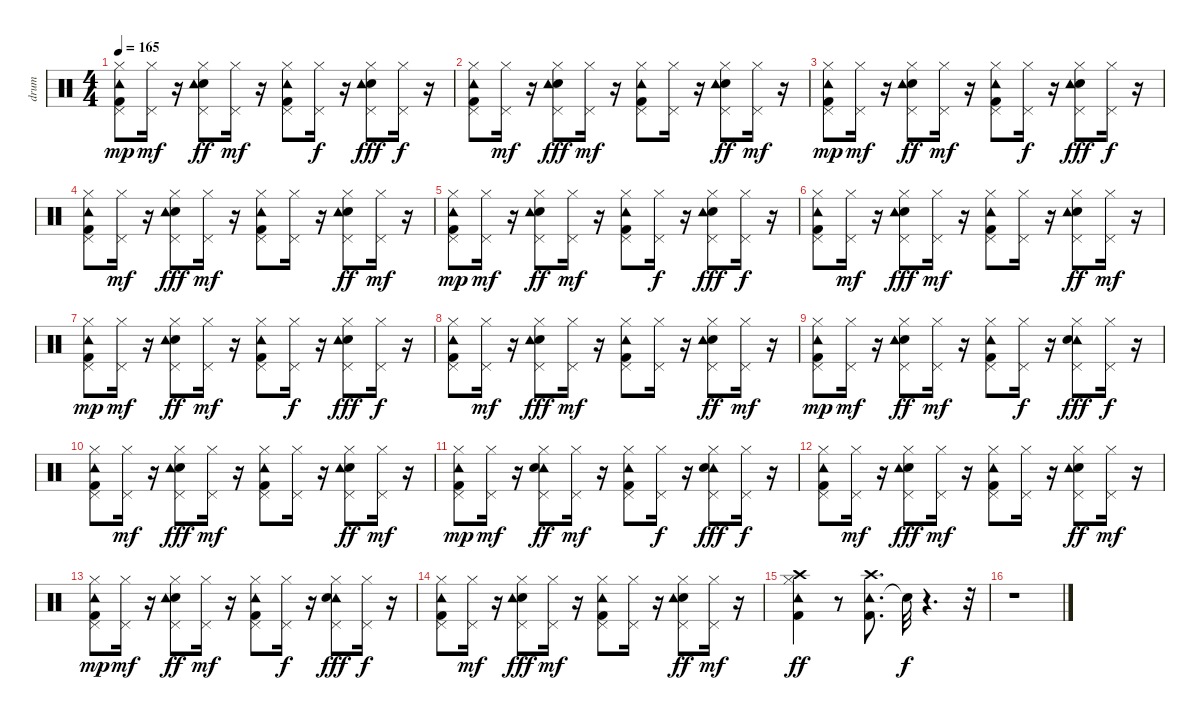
\track ("drum" "drum") {instrument percussion}
\staff {score}
\articulation defaults
\ts (4 4)
\tempo 165
\clef neutral
\ks c
("Hi-Hat (closed)" "Tambourine (hit)" "Pedal Hi-Hat (hit)" "Kick (hit) 2").8{dy mp} ("Hi-Hat (closed)" "Pedal Hi-Hat (hit)").16{dy mf} r.16 ("Hi-Hat (closed)" "Pedal Hi-Hat (hit)" "Electric Snare (hit)" "Tambourine (hit)").8{dy ff} ("Hi-Hat (closed)" "Pedal Hi-Hat (hit)").16{dy mf} r.16 ("Hi-Hat (closed)" "Pedal Hi-Hat (hit)" "Kick (hit) 2" "Tambourine (hit)").8 ("Hi-Hat (closed)" "Pedal Hi-Hat (hit)").16{dy f} r.16 ("Hi-Hat (closed)" "Pedal Hi-Hat (hit)" "Electric Snare (hit)" "Tambourine (hit)").8{dy fff} ("Hi-Hat (closed)" "Pedal Hi-Hat (hit)").16{dy f} r.16 |
("Hi-Hat (closed)" "Pedal Hi-Hat (hit)" "Kick (hit) 2" "Tambourine (hit)").8 ("Hi-Hat (closed)" "Pedal Hi-Hat (hit)").16{dy mf} r.16 ("Hi-Hat (closed)" "Pedal Hi-Hat (hit)" "Electric Snare (hit)" "Tambourine (hit)").8{dy fff} ("Hi-Hat (closed)" "Pedal Hi-Hat (hit)").16{dy mf} r.16 ("Hi-Hat (closed)" "Pedal Hi-Hat (hit)" "Kick (hit) 2" "Tambourine (hit)").8 ("Hi-Hat (closed)" "Pedal Hi-Hat (hit)").16 r.16 ("Hi-Hat (closed)" "Pedal Hi-Hat (hit)" "Electric Snare (hit)" "Tambourine (hit)").8{dy ff} ("Hi-Hat (closed)" "Pedal Hi-Hat (hit)").16{dy mf} r.16 |
("Hi-Hat (closed)" "Pedal Hi-Hat (hit)" "Kick (hit) 2" "Tambourine (hit)").8{dy mp} ("Hi-Hat (closed)" "Pedal Hi-Hat (hit)").16{dy mf} r.16 ("Hi-Hat (closed)" "Pedal Hi-Hat (hit)" "Electric Snare (hit)" "Tambourine (hit)").8{dy ff} ("Hi-Hat (closed)" "Pedal Hi-Hat (hit)").16{dy mf} r.16 ("Hi-Hat (closed)" "Pedal Hi-Hat (hit)" "Kick (hit) 2" "Tambourine (hit)").8 ("Hi-Hat (closed)" "Pedal Hi-Hat (hit)").16{dy f} r.16 ("Hi-Hat (closed)" "Pedal Hi-Hat (hit)" "Electric Snare (hit)" "Tambourine (hit)").8{dy fff} ("Hi-Hat (closed)" "Pedal Hi-Hat (hit)").16{dy f} r.16 |
("Hi-Hat (closed)" "Pedal Hi-Hat (hit)" "Kick (hit) 2" "Tambourine (hit)").8 ("Hi-Hat (closed)" "Pedal Hi-Hat (hit)").16{dy mf} r.16 ("Hi-Hat (closed)" "Pedal Hi-Hat (hit)" "Electric Snare (hit)" "Tambourine (hit)").8{dy fff} ("Hi-Hat (closed)" "Pedal Hi-Hat (hit)").16{dy mf} r.16 ("Hi-Hat (closed)" "Pedal Hi-Hat (hit)" "Kick (hit) 2" "Tambourine (hit)").8 ("Hi-Hat (closed)" "Pedal Hi-Hat (hit)").16 r.16 ("Hi-Hat (closed)" "Pedal Hi-Hat (hit)" "Electric Snare (hit)" "Tambourine (hit)").8{dy ff} ("Hi-Hat (closed)" "Pedal Hi-Hat (hit)").16{dy mf} r.16 |
("Hi-Hat (closed)" "Pedal Hi-Hat (hit)" "Kick (hit) 2" "Tambourine (hit)").8{dy mp} ("Hi-Hat (closed)" "Pedal Hi-Hat (hit)").16{dy mf} r.16 ("Hi-Hat (closed)" "Pedal Hi-Hat (hit)" "Electric Snare (hit)" "Tambourine (hit)").8{dy ff} ("Hi-Hat (closed)" "Pedal Hi-Hat (hit)").16{dy mf} r.16 ("Hi-Hat (closed)" "Pedal Hi-Hat (hit)" "Kick (hit) 2" "Tambourine (hit)").8 ("Hi-Hat (closed)" "Pedal Hi-Hat (hit)").16{dy f} r.16 ("Hi-Hat (closed)" "Pedal Hi-Hat (hit)" "Electric Snare (hit)" "Tambourine (hit)").8{dy fff} ("Hi-Hat (closed)" "Pedal Hi-Hat (hit)").16{dy f} r.16 |
("Hi-Hat (closed)" "Pedal Hi-Hat (hit)" "Kick (hit) 2" "Tambourine (hit)").8 ("Hi-Hat (closed)" "Pedal Hi-Hat (hit)").16{dy mf} r.16 ("Hi-Hat (closed)" "Pedal Hi-Hat (hit)" "Electric Snare (hit)" "Tambourine (hit)").8{dy fff} ("Hi-Hat (closed)" "Pedal Hi-Hat (hit)").16{dy mf} r.16 ("Hi-Hat (closed)" "Pedal Hi-Hat (hit)" "Kick (hit) 2" "Tambourine (hit)").8 ("Hi-Hat (closed)" "Pedal Hi-Hat (hit)").16 r.16 ("Hi-Hat (closed)" "Pedal Hi-Hat (hit)" "Electric Snare (hit)" "Tambourine (hit)").8{dy ff} ("Hi-Hat (closed)" "Pedal Hi-Hat (hit)").16{dy mf} r.16 |
("Hi-Hat (closed)" "Pedal Hi-Hat (hit)" "Kick (hit) 2" "Tambourine (hit)").8{dy mp} ("Hi-Hat (closed)" "Pedal Hi-Hat (hit)").16{dy mf} r.16 ("Hi-Hat (closed)" "Pedal Hi-Hat (hit)" "Electric Snare (hit)" "Tambourine (hit)").8{dy ff} ("Hi-Hat (closed)" "Pedal Hi-Hat (hit)").16{dy mf} r.16 ("Hi-Hat (closed)" "Pedal Hi-Hat (hit)" "Kick (hit) 2" "Tambourine (hit)").8 ("Hi-Hat (closed)" "Pedal Hi-Hat (hit)").16{dy f} r.16 ("Hi-Hat (closed)" "Pedal Hi-Hat (hit)" "Electric Snare (hit)" "Tambourine (hit)").8{dy fff} ("Hi-Hat (closed)" "Pedal Hi-Hat (hit)").16{dy f} r.16 |
("Hi-Hat (closed)" "Pedal Hi-Hat (hit)" "Kick (hit) 2" "Tambourine (hit)").8 ("Hi-Hat (closed)" "Pedal Hi-Hat (hit)").16{dy mf} r.16 ("Hi-Hat (closed)" "Pedal Hi-Hat (hit)" "Electric Snare (hit)" "Tambourine (hit)").8{dy fff} ("Hi-Hat (closed)" "Pedal Hi-Hat (hit)").16{dy mf} r.16 ("Hi-Hat (closed)" "Pedal Hi-Hat (hit)" "Kick (hit) 2" "Tambourine (hit)").8 ("Hi-Hat (closed)" "Pedal Hi-Hat (hit)").16 r.16 ("Hi-Hat (closed)" "Pedal Hi-Hat (hit)" "Electric Snare (hit)" "Tambourine (hit)").8{dy ff} ("Hi-Hat (closed)" "Pedal Hi-Hat (hit)").16{dy mf} r.16 |
("Hi-Hat (closed)" "Pedal Hi-Hat (hit)" "Kick (hit) 2" "Tambourine (hit)").8{dy mp} ("Hi-Hat (closed)" "Pedal Hi-Hat (hit)").16{dy mf} r.16 ("Hi-Hat (closed)" "Pedal Hi-Hat (hit)" "Electric Snare (hit)" "Tambourine (hit)").8{dy ff} ("Hi-Hat (closed)" "Pedal Hi-Hat (hit)").16{dy mf} r.16 ("Hi-Hat (closed)" "Tambourine (hit)" "Pedal Hi-Hat (hit)" "Kick (hit) 2").8 ("Hi-Hat (closed)" "Pedal Hi-Hat (hit)").16{dy f} r.16 ("Hi-Hat (closed)" "Tambourine (hit)" "Pedal Hi-Hat (hit)" "Electric Snare (hit)").8{dy fff} ("Hi-Hat (closed)" "Pedal Hi-Hat (hit)").16{dy f} r.16 |
("Hi-Hat (closed)" "Pedal Hi-Hat (hit)" "Kick (hit) 2" "Tambourine (hit)").8 ("Hi-Hat (closed)" "Pedal Hi-Hat (hit)").16{dy mf} r.16 ("Hi-Hat (closed)" "Pedal Hi-Hat (hit)" "Electric Snare (hit)" "Tambourine (hit)").8{dy fff} ("Hi-Hat (closed)" "Pedal Hi-Hat (hit)").16{dy mf} r.16 ("Hi-Hat (closed)" "Pedal Hi-Hat (hit)" "Kick (hit) 2" "Tambourine (hit)").8 ("Hi-Hat (closed)" "Pedal Hi-Hat (hit)").16 r.16 ("Hi-Hat (closed)" "Pedal Hi-Hat (hit)" "Electric Snare (hit)" "Tambourine (hit)").8{dy ff} ("Hi-Hat (closed)" "Pedal Hi-Hat (hit)").16{dy mf} r.16 |
("Hi-Hat (closed)" "Pedal Hi-Hat (hit)" "Kick (hit) 2" "Tambourine (hit)").8{dy mp} ("Hi-Hat (closed)" "Pedal Hi-Hat (hit)").16{dy mf} r.16 ("Hi-Hat (closed)" "Tambourine (hit)" "Pedal Hi-Hat (hit)" "Electric Snare (hit)").8{dy ff} ("Hi-Hat (closed)" "Pedal Hi-Hat (hit)").16{dy mf} r.16 ("Hi-Hat (closed)" "Pedal Hi-Hat (hit)" "Kick (hit) 2" "Tambourine (hit)").8 ("Hi-Hat (closed)" "Pedal Hi-Hat (hit)").16{dy f} r.16 ("Hi-Hat (closed)" "Tambourine (hit)" "Pedal Hi-Hat (hit)" "Electric Snare (hit)").8{dy fff} ("Hi-Hat (closed)" "Pedal Hi-Hat (hit)").16{dy f} r.16 |
("Hi-Hat (closed)" "Pedal Hi-Hat (hit)" "Kick (hit) 2" "Tambourine (hit)").8 ("Hi-Hat (closed)" "Pedal Hi-Hat (hit)").16{dy mf} r.16 ("Hi-Hat (closed)" "Pedal Hi-Hat (hit)" "Electric Snare (hit)" "Tambourine (hit)").8{dy fff} ("Hi-Hat (closed)" "Pedal Hi-Hat (hit)").16{dy mf} r.16 ("Hi-Hat (closed)" "Pedal Hi-Hat (hit)" "Kick (hit) 2" "Tambourine (hit)").8 ("Hi-Hat (closed)" "Pedal Hi-Hat (hit)").16 r.16 ("Hi-Hat (closed)" "Pedal Hi-Hat (hit)" "Electric Snare (hit)" "Tambourine (hit)").8{dy ff} ("Hi-Hat (closed)" "Pedal Hi-Hat (hit)").16{dy mf} r.16 |
("Hi-Hat (closed)" "Pedal Hi-Hat (hit)" "Kick (hit) 2" "Tambourine (hit)").8{dy mp} ("Hi-Hat (closed)" "Pedal Hi-Hat (hit)").16{dy mf} r.16 ("Hi-Hat (closed)" "Pedal Hi-Hat (hit)" "Electric Snare (hit)" "Tambourine (hit)").8{dy ff} ("Hi-Hat (closed)" "Pedal Hi-Hat (hit)").16{dy mf} r.16 ("Hi-Hat (closed)" "Pedal Hi-Hat (hit)" "Kick (hit) 2" "Tambourine (hit)").8 ("Hi-Hat (closed)" "Pedal Hi-Hat (hit)").16{dy f} r.16 ("Hi-Hat (closed)" "Tambourine (hit)" "Pedal Hi-Hat (hit)" "Electric Snare (hit)").8{dy fff} ("Hi-Hat (closed)" "Pedal Hi-Hat (hit)").16{dy f} r.16 |
("Hi-Hat (closed)" "Pedal Hi-Hat (hit)" "Kick (hit) 2" "Tambourine (hit)").8 ("Hi-Hat (closed)" "Pedal Hi-Hat (hit)").16{dy mf} r.16 ("Hi-Hat (closed)" "Pedal Hi-Hat (hit)" "Electric Snare (hit)" "Tambourine (hit)").8{dy fff} ("Hi-Hat (closed)" "Pedal Hi-Hat (hit)").16{dy mf} r.16 ("Hi-Hat (closed)" "Pedal Hi-Hat (hit)" "Kick (hit) 2" "Tambourine (hit)").8 ("Hi-Hat (closed)" "Pedal Hi-Hat (hit)").16 r.16 ("Hi-Hat (closed)" "Pedal Hi-Hat (hit)" "Electric Snare (hit)" "Tambourine (hit)").8{dy ff} ("Hi-Hat (closed)" "Pedal Hi-Hat (hit)").16{dy mf} r.16 |
("Hi-Hat (closed)" "Kick (hit) 2" "Crash high (hit)" "Tambourine (hit)").4{dy ff} r.8 ("Tambourine (hit)" "Kick (hit) 2" "Crash high (hit)").8{d} "Snare (hit)"{t}.32{dy f} r.4{d} r.32 |
r.1
